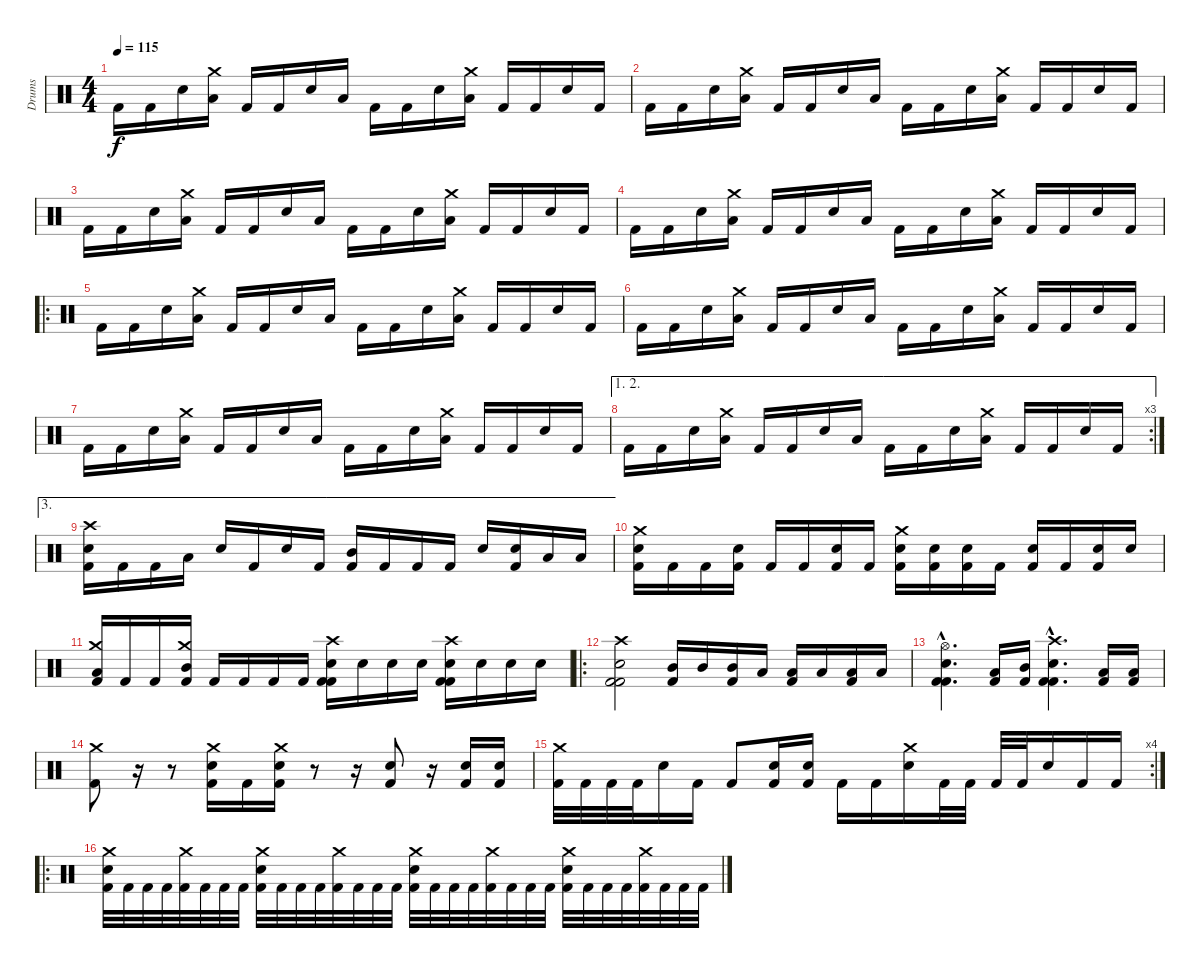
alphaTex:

\track ("Drums" "Drums") {instrument percussion}
\staff {score}
\articulation defaults
\ts (4 4)
\tempo 115
\clef neutral
\ks c "Kick (hit) 2".16{dy f} "Kick (hit) 2".16 "Electric Snare (hit)".16
("Crash medium (hit)" "Low Tom (hit)").16 "Kick (hit) 2".16 "Kick (hit) 2".16 "Electric Snare (hit)".16 "Low Tom (hit)".16 "Kick (hit) 2".16 "Kick (hit) 2".16 "Electric Snare (hit)".16 ("Crash medium (hit)" "Low Tom (hit)").16 "Kick (hit) 2".16 "Kick (hit) 2".16 "Electric Snare (hit)".16 "Kick (hit) 2".16 |
"Kick (hit) 2".16 "Kick (hit) 2".16 "Electric Snare (hit)".16 ("Crash medium (hit)" "Low Tom (hit)").16 "Kick (hit) 2".16 "Kick (hit) 2".16 "Electric Snare (hit)".16 "Low Tom (hit)".16 "Kick (hit) 2".16 "Kick (hit) 2".16 "Electric Snare (hit)".16 ("Crash medium (hit)" "Low Tom (hit)").16 "Kick (hit) 2".16 "Kick (hit) 2".16 "Electric Snare (hit)".16 "Kick (hit) 2".16 |
"Kick (hit) 2".16 "Kick (hit) 2".16 "Electric Snare (hit)".16 ("Crash medium (hit)" "Low Tom (hit)").16 "Kick (hit) 2".16 "Kick (hit) 2".16 "Electric Snare (hit)".16 "Low Tom (hit)".16 "Kick (hit) 2".16 "Kick (hit) 2".16 "Electric Snare (hit)".16 ("Crash medium (hit)" "Low Tom (hit)").16 "Kick (hit) 2".16 "Kick (hit) 2".16 "Electric Snare (hit)".16 "Kick (hit) 2".16 |
"Kick (hit) 2".16 "Kick (hit) 2".16 "Electric Snare (hit)".16 ("Crash medium (hit)" "Low Tom (hit)").16 "Kick (hit) 2".16 "Kick (hit) 2".16 "Electric Snare (hit)".16 "Low Tom (hit)".16 "Kick (hit) 2".16 "Kick (hit) 2".16 "Electric Snare (hit)".16 ("Crash medium (hit)" "Low Tom (hit)").16 "Kick (hit) 2".16 "Kick (hit) 2".16 "Electric Snare (hit)".16 "Kick (hit) 2".16 |
\ro "Kick (hit) 2".16 "Kick (hit) 2".16 "Electric Snare (hit)".16
("Crash medium (hit)" "Low Tom (hit)").16 "Kick (hit) 2".16 "Kick (hit) 2".16 "Electric Snare (hit)".16 "Low Tom (hit)".16 "Kick (hit) 2".16 "Kick (hit) 2".16 "Electric Snare (hit)".16 ("Crash medium (hit)" "Low Tom (hit)").16 "Kick (hit) 2".16 "Kick (hit) 2".16 "Electric Snare (hit)".16 "Kick (hit) 2".16 |
"Kick (hit) 2".16 "Kick (hit) 2".16 "Electric Snare (hit)".16 ("Crash medium (hit)" "Low Tom (hit)").16 "Kick (hit) 2".16 "Kick (hit) 2".16 "Electric Snare (hit)".16 "Low Tom (hit)".16 "Kick (hit) 2".16 "Kick (hit) 2".16 "Electric Snare (hit)".16 ("Crash medium (hit)" "Low Tom (hit)").16 "Kick (hit) 2".16 "Kick (hit) 2".16 "Electric Snare (hit)".16 "Kick (hit) 2".16 |
"Kick (hit) 2".16 "Kick (hit) 2".16 "Electric Snare (hit)".16 ("Crash medium (hit)" "Low Tom (hit)").16 "Kick (hit) 2".16 "Kick (hit) 2".16 "Electric Snare (hit)".16 "Low Tom (hit)".16 "Kick (hit) 2".16 "Kick (hit) 2".16 "Electric Snare (hit)".16 ("Crash medium (hit)" "Low Tom (hit)").16 "Kick (hit) 2".16 "Kick (hit) 2".16 "Electric Snare (hit)".16 "Kick (hit) 2".16 |
\ae (1 2)
\rc 3 "Kick (hit) 2".16 "Kick (hit) 2".16 "Electric Snare (hit)".16
("Crash medium (hit)" "Low Tom (hit)").16 "Kick (hit) 2".16 "Kick (hit) 2".16 "Electric Snare (hit)".16 "Low Tom (hit)".16 "Kick (hit) 2".16 "Kick (hit) 2".16 "Electric Snare (hit)".16 ("Crash medium (hit)" "Low Tom (hit)").16 "Kick (hit) 2".16 "Kick (hit) 2".16 "Electric Snare (hit)".16 "Kick (hit) 2".16 |
\ae 3
("Crash high (hit)" "Electric Snare (hit)" "Kick (hit) 2").16 "Kick (hit) 2".16 "Kick (hit) 2".16 "Low Tom (hit)".16 "Electric Snare (hit)".16 "Kick (hit) 2".16 "Electric Snare (hit)".16 "Kick (hit) 2".16 ("Mid Tom (hit)" "Kick (hit) 2").16 "Kick (hit) 2".16 "Kick (hit) 2".16 "Kick (hit) 2".16 "Electric Snare (hit)".16 ("Electric Snare (hit)" "Kick (hit) 2").16 "Low Floor Tom (hit)".16 "Low Tom (hit)".16 |
("Crash medium (hit)" "Electric Snare (hit)" "Kick (hit) 2").16 "Kick (hit) 2".16 "Kick (hit) 2".16 ("Electric Snare (hit)" "Kick (hit) 2").16 "Kick (hit) 2".16 "Kick (hit) 2".16 ("Electric Snare (hit)" "Kick (hit) 2").16 "Kick (hit) 2".16 ("Crash medium (hit)" "Electric Snare (hit)" "Kick (hit) 2").16 ("Electric Snare (hit)" "Kick (hit) 2").16 ("Electric Snare (hit)" "Kick (hit) 2").16 "Kick (hit) 2".16 ("Electric Snare (hit)" "Kick (hit) 2").16 "Kick (hit) 2".16 ("Electric Snare (hit)" "Kick (hit) 2").16 "Electric Snare (hit)".16 |
("Crash medium (hit)" "Low Tom (hit)" "Kick (hit) 2").16 "Kick (hit) 2".16 "Kick (hit) 2".16 ("Crash medium (hit)" "Mid Tom (hit)" "Kick (hit) 2").16 "Kick (hit) 2".16 "Kick (hit) 2".16 "Kick (hit) 2".16 "Kick (hit) 2".16 ("Crash high (hit)" "Electric Snare (hit)" "Kick (hit) 2" "Kick (hit) 2").16 "Electric Snare (hit)".16 "Electric Snare (hit)".16 "Electric Snare (hit)".16 ("Crash high (hit)" "Electric Snare (hit)" "Kick (hit) 2" "Kick (hit) 2").16 "Electric Snare (hit)".16 "Electric Snare (hit)".16 "Electric Snare (hit)".16 |
\ro
("Crash high (hit)" "Electric Snare (hit)" "Kick (hit) 2" "Kick (hit) 2").2 ("Mid Tom (hit)" "Kick (hit) 2").16 "Mid Tom (hit)".16 ("Mid Tom (hit)" "Kick (hit) 2").16 "Low Tom (hit)".16 ("Low Tom (hit)" "Kick (hit) 2").16 "Low Tom (hit)".16 ("Low Floor Tom (hit)" "Kick (hit) 2").16 "Low Floor Tom (hit)".16 |
("Hi-Hat (open)"{hac} "Electric Snare (hit)"{hac} "Kick (hit) 2"{hac} "Kick (hit) 2"{hac}).4{d} ("Low Tom (hit)" "Kick (hit) 2").16 ("Mid Tom (hit)" "Kick (hit) 2").16 ("Crash high (hit)"{hac} "Electric Snare (hit)"{hac} "Kick (hit) 2"{hac} "Kick (hit) 2"{hac}).4{d} ("Low Floor Tom (hit)" "Kick (hit) 2").16 ("Low Tom (hit)" "Kick (hit) 2").16 |
("Crash medium (hit)" "Kick (hit) 2").8 r.16 r.8 ("Crash medium (hit)" "Electric Snare (hit)" "Kick (hit) 2").16 "Kick (hit) 2".16 ("Crash medium (hit)" "Electric Snare (hit)" "Kick (hit) 2").16 r.8 r.16 ("Electric Snare (hit)" "Kick (hit) 2").8 r.16 ("Electric Snare (hit)" "Kick (hit) 2").16 ("Electric Snare (hit)" "Kick (hit) 2").16 |
\rc 4
("Crash medium (hit)" "Kick (hit) 2").32 "Kick (hit) 2".32 "Kick (hit) 2".32 "Kick (hit) 2".32 "Electric Snare (hit)".16 "Kick (hit) 2".16 "Kick (hit) 2".8 ("Electric Snare (hit)" "Kick (hit) 2").16 ("Electric Snare (hit)" "Kick (hit) 2").16 "Kick (hit) 2".16 "Kick (hit) 2".16 ("Crash medium (hit)" "Electric Snare (hit)").16 "Kick (hit) 2".32 "Kick (hit) 2".32 "Kick (hit) 2".32 "Kick (hit) 2".32 "Electric Snare (hit)".16 "Kick (hit) 2".16 "Kick (hit) 2".16 |
\ro
("Crash medium (hit)" "Electric Snare (hit)" "Kick (hit) 2").32 "Kick (hit) 2".32 "Kick (hit) 2".32 "Kick (hit) 2".32 ("Crash medium (hit)" "Kick (hit) 2").32 "Kick (hit) 2".32 "Kick (hit) 2".32 "Kick (hit) 2".32 ("Crash medium (hit)" "Electric Snare (hit)" "Kick (hit) 2").32 "Kick (hit) 2".32 "Kick (hit) 2".32 "Kick (hit) 2".32 ("Crash medium (hit)" "Kick (hit) 2").32 "Kick (hit) 2".32 "Kick (hit) 2".32 "Kick (hit) 2".32 ("Crash medium (hit)" "Electric Snare (hit)" "Kick (hit) 2").32 "Kick (hit) 2".32 "Kick (hit) 2".32 "Kick (hit) 2".32 ("Crash medium (hit)" "Kick (hit) 2").32 "Kick (hit) 2".32 "Kick (hit) 2".32 "Kick (hit) 2".32 ("Crash medium (hit)" "Electric Snare (hit)" "Kick (hit) 2").32 "Kick (hit) 2".32 "Kick (hit) 2".32 "Kick (hit) 2".32 ("Crash medium (hit)" "Kick (hit) 2").32 "Kick (hit) 2".32 "Kick (hit) 2".32 "Kick (hit) 2".32
